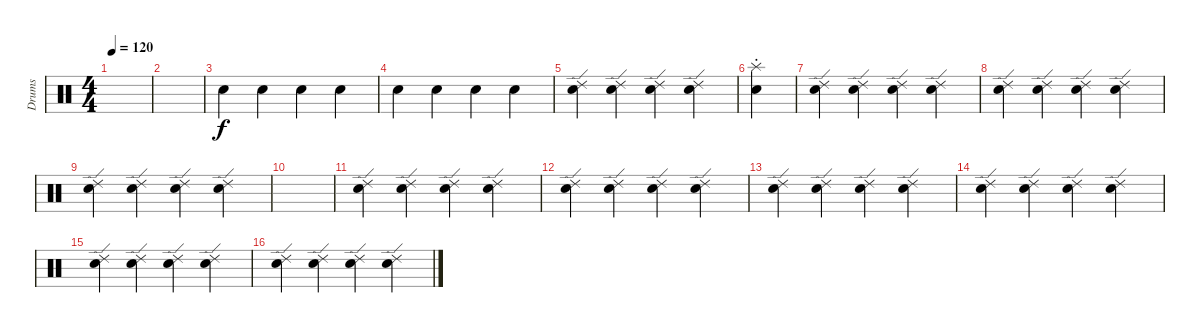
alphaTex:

\track ("Drums" "Drums") {instrument percussion}
\staff {score}
\articulation defaults
\ts (4 4)
\tempo 120
\clef neutral
\ks c
|
|
"Snare (hit) 2".4 "Electric Snare (hit)".4 "Snare (hit) 2".4 "Electric Snare (hit)".4 |
"Snare (hit) 2".4 "Electric Snare (hit)".4 "Snare (hit) 2".4 "Electric Snare (hit)".4 |
("Snare (hit) 2" "Ride (edge) 2").4 ("Electric Snare (hit)" "Ride (edge) 2").4 ("Snare (hit) 2" "Ride (edge) 2").4 ("Electric Snare (hit)" "Ride (edge) 2").4 |
("Splash (choke)" "Snare (hit) 2").4 |
("Snare (hit) 2" "Ride (edge) 2").4 ("Electric Snare (hit)" "Ride (edge) 2").4 ("Snare (hit) 2" "Ride (edge) 2").4 ("Electric Snare (hit)" "Ride (edge) 2").4 |
("Snare (hit) 2" "Ride (edge) 2").4 ("Electric Snare (hit)" "Ride (edge) 2").4 ("Snare (hit) 2" "Ride (edge) 2").4 ("Electric Snare (hit)" "Ride (edge) 2").4 |
("Snare (hit) 2" "Ride (edge) 2").4 ("Electric Snare (hit)" "Ride (edge) 2").4 ("Snare (hit) 2" "Ride (edge) 2").4 ("Electric Snare (hit)" "Ride (edge) 2").4 |
|
("Snare (hit) 2" "Ride (edge) 2").4 ("Electric Snare (hit)" "Ride (edge) 2").4 ("Snare (hit) 2" "Ride (edge) 2").4 ("Electric Snare (hit)" "Ride (edge) 2").4 |
("Snare (hit) 2" "Ride (edge) 2").4 ("Electric Snare (hit)" "Ride (edge) 2").4 ("Snare (hit) 2" "Ride (edge) 2").4 ("Electric Snare (hit)" "Ride (edge) 2").4 |
("Snare (hit) 2" "Ride (edge) 2").4 ("Electric Snare (hit)" "Ride (edge) 2").4 ("Snare (hit) 2" "Ride (edge) 2").4 ("Electric Snare (hit)" "Ride (edge) 2").4 |
("Snare (hit) 2" "Ride (edge) 2").4 ("Electric Snare (hit)" "Ride (edge) 2").4 ("Snare (hit) 2" "Ride (edge) 2").4 ("Electric Snare (hit)" "Ride (edge) 2").4 |
("Snare (hit) 2" "Ride (edge) 2").4 ("Electric Snare (hit)" "Ride (edge) 2").4 ("Snare (hit) 2" "Ride (edge) 2").4 ("Electric Snare (hit)" "Ride (edge) 2").4 |
("Snare (hit) 2" "Ride (edge) 2").4 ("Electric Snare (hit)" "Ride (edge) 2").4 ("Snare (hit) 2" "Ride (edge) 2").4 ("Electric Snare (hit)" "Ride (edge) 2").4
